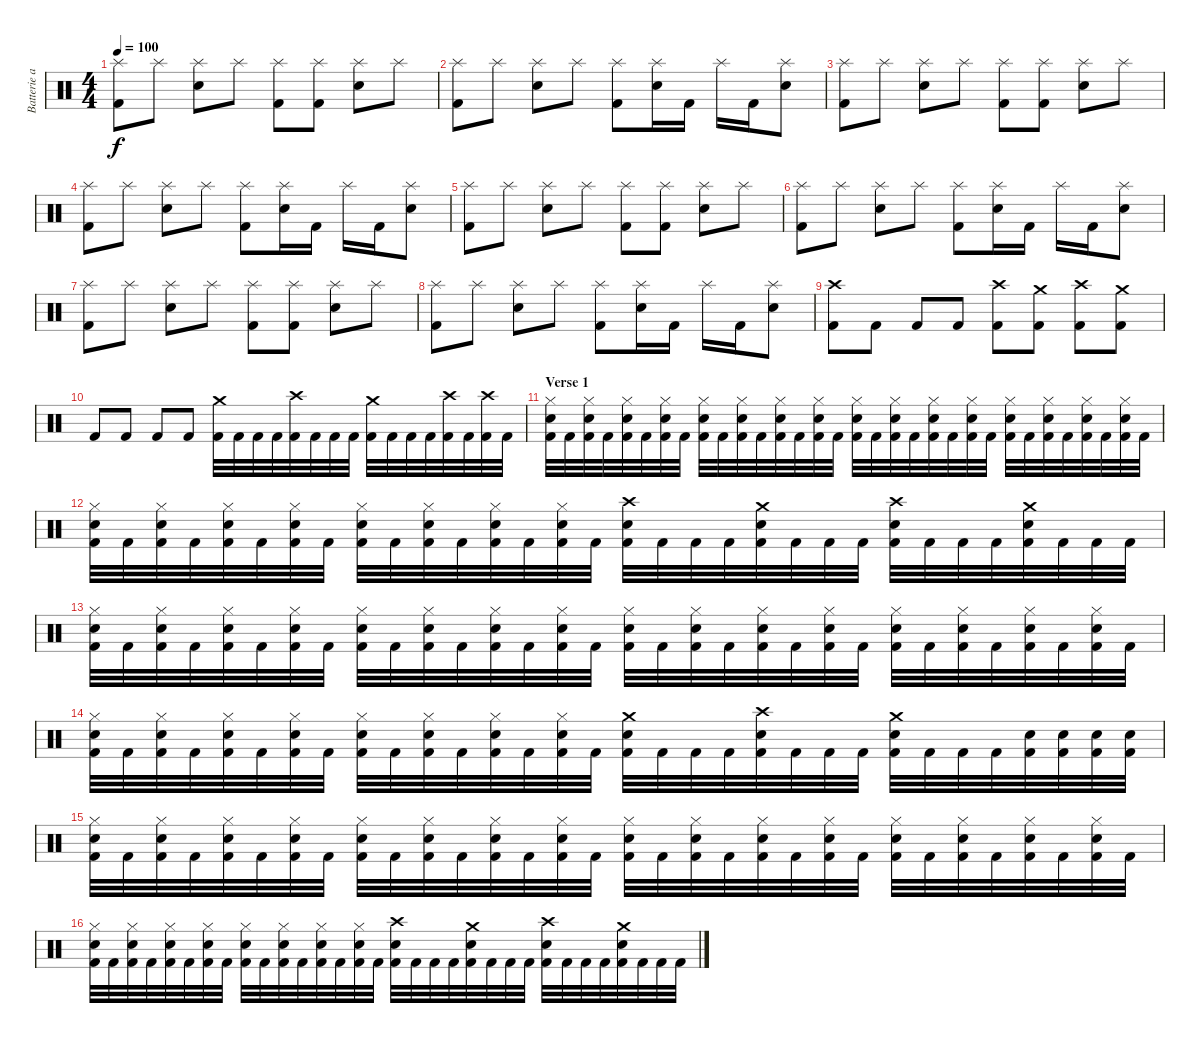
\track ("Batterie and Effects" "Batterie a") {instrument percussion}
\staff {score}
\articulation defaults
\ts (4 4)
\tempo 100
\clef neutral
\ks c
("Splash (hit)" "Kick (hit) 2").8{dy f} "Splash (hit)".8 ("Splash (hit)" "Electric Snare (hit)").8 "Splash (hit)".8 ("Splash (hit)" "Kick (hit) 2").8 ("Splash (hit)" "Kick (hit) 2").8 ("Splash (hit)" "Electric Snare (hit)").8 "Splash (hit)".8 |
("Splash (hit)" "Kick (hit) 2").8 "Splash (hit)".8 ("Splash (hit)" "Electric Snare (hit)").8 "Splash (hit)".8 ("Splash (hit)" "Kick (hit) 2").8 ("Splash (hit)" "Electric Snare (hit)").16 "Kick (hit) 2".16 "Splash (hit)".16 "Kick (hit) 2".16 ("Splash (hit)" "Electric Snare (hit)").8 |
("Splash (hit)" "Kick (hit) 2").8 "Splash (hit)".8 ("Splash (hit)" "Electric Snare (hit)").8 "Splash (hit)".8 ("Splash (hit)" "Kick (hit) 2").8 ("Splash (hit)" "Kick (hit) 2").8 ("Splash (hit)" "Electric Snare (hit)").8 "Splash (hit)".8 |
("Splash (hit)" "Kick (hit) 2").8 "Splash (hit)".8 ("Splash (hit)" "Electric Snare (hit)").8 "Splash (hit)".8 ("Splash (hit)" "Kick (hit) 2").8 ("Splash (hit)" "Electric Snare (hit)").16 "Kick (hit) 2".16 "Splash (hit)".16 "Kick (hit) 2".16 ("Splash (hit)" "Electric Snare (hit)").8 |
("Splash (hit)" "Kick (hit) 2").8 "Splash (hit)".8 ("Splash (hit)" "Electric Snare (hit)").8 "Splash (hit)".8 ("Splash (hit)" "Kick (hit) 2").8 ("Splash (hit)" "Kick (hit) 2").8 ("Splash (hit)" "Electric Snare (hit)").8 "Splash (hit)".8 |
("Splash (hit)" "Kick (hit) 2").8 "Splash (hit)".8 ("Splash (hit)" "Electric Snare (hit)").8 "Splash (hit)".8 ("Splash (hit)" "Kick (hit) 2").8 ("Splash (hit)" "Electric Snare (hit)").16 "Kick (hit) 2".16 "Splash (hit)".16 "Kick (hit) 2".16 ("Splash (hit)" "Electric Snare (hit)").8 |
("Splash (hit)" "Kick (hit) 2").8 "Splash (hit)".8 ("Splash (hit)" "Electric Snare (hit)").8 "Splash (hit)".8 ("Splash (hit)" "Kick (hit) 2").8 ("Splash (hit)" "Kick (hit) 2").8 ("Splash (hit)" "Electric Snare (hit)").8 "Splash (hit)".8 |
("Splash (hit)" "Kick (hit) 2").8 "Splash (hit)".8 ("Splash (hit)" "Electric Snare (hit)").8 "Splash (hit)".8 ("Splash (hit)" "Kick (hit) 2").8 ("Splash (hit)" "Electric Snare (hit)").16 "Kick (hit) 2".16 "Splash (hit)".16 "Kick (hit) 2".16 ("Splash (hit)" "Electric Snare (hit)").8 |
("Crash high (hit)" "Kick (hit) 2").8 "Kick (hit) 2".8 "Kick (hit) 2".8 "Kick (hit) 2".8 ("Crash high (hit)" "Kick (hit) 2").8 ("Crash medium (hit)" "Kick (hit) 2").8 ("Crash high (hit)" "Kick (hit) 2").8 ("Crash medium (hit)" "Kick (hit) 2").8 |
"Kick (hit) 2".8 "Kick (hit) 2".8 "Kick (hit) 2".8 "Kick (hit) 2".8 ("Crash medium (hit)" "Kick (hit) 2").32 "Kick (hit) 2".32 "Kick (hit) 2".32 "Kick (hit) 2".32 ("Crash high (hit)" "Kick (hit) 2").32 "Kick (hit) 2".32 "Kick (hit) 2".32 "Kick (hit) 2".32 ("Crash medium (hit)" "Kick (hit) 2").32 "Kick (hit) 2".32 "Kick (hit) 2".32 "Kick (hit) 2".32 ("Crash high (hit)" "Kick (hit) 2").32 "Kick (hit) 2".32 ("Crash high (hit)" "Kick (hit) 2").32 "Kick (hit) 2".32 |
\section ("" "Verse 1")
("Hi-Hat (closed)" "Electric Snare (hit)" "Kick (hit) 2").32 "Kick (hit) 2".32 ("Hi-Hat (closed)" "Electric Snare (hit)" "Kick (hit) 2").32 "Kick (hit) 2".32 ("Hi-Hat (closed)" "Electric Snare (hit)" "Kick (hit) 2").32 "Kick (hit) 2".32 ("Hi-Hat (closed)" "Electric Snare (hit)" "Kick (hit) 2").32 "Kick (hit) 2".32 ("Hi-Hat (closed)" "Electric Snare (hit)" "Kick (hit) 2").32 "Kick (hit) 2".32 ("Hi-Hat (closed)" "Electric Snare (hit)" "Kick (hit) 2").32 "Kick (hit) 2".32 ("Hi-Hat (closed)" "Electric Snare (hit)" "Kick (hit) 2").32 "Kick (hit) 2".32 ("Hi-Hat (closed)" "Electric Snare (hit)" "Kick (hit) 2").32 "Kick (hit) 2".32 ("Hi-Hat (closed)" "Electric Snare (hit)" "Kick (hit) 2").32 "Kick (hit) 2".32 ("Hi-Hat (closed)" "Electric Snare (hit)" "Kick (hit) 2").32 "Kick (hit) 2".32 ("Hi-Hat (closed)" "Electric Snare (hit)" "Kick (hit) 2").32 "Kick (hit) 2".32 ("Hi-Hat (closed)" "Electric Snare (hit)" "Kick (hit) 2").32 "Kick (hit) 2".32 ("Hi-Hat (closed)" "Electric Snare (hit)" "Kick (hit) 2").32 "Kick (hit) 2".32 ("Hi-Hat (closed)" "Electric Snare (hit)" "Kick (hit) 2").32 "Kick (hit) 2".32 ("Hi-Hat (closed)" "Electric Snare (hit)" "Kick (hit) 2").32 "Kick (hit) 2".32 ("Hi-Hat (closed)" "Electric Snare (hit)" "Kick (hit) 2").32 "Kick (hit) 2".32 |
("Hi-Hat (closed)" "Electric Snare (hit)" "Kick (hit) 2").32 "Kick (hit) 2".32 ("Hi-Hat (closed)" "Electric Snare (hit)" "Kick (hit) 2").32 "Kick (hit) 2".32 ("Hi-Hat (closed)" "Electric Snare (hit)" "Kick (hit) 2").32 "Kick (hit) 2".32 ("Hi-Hat (closed)" "Electric Snare (hit)" "Kick (hit) 2").32 "Kick (hit) 2".32 ("Hi-Hat (closed)" "Electric Snare (hit)" "Kick (hit) 2").32 "Kick (hit) 2".32 ("Hi-Hat (closed)" "Electric Snare (hit)" "Kick (hit) 2").32 "Kick (hit) 2".32 ("Hi-Hat (closed)" "Electric Snare (hit)" "Kick (hit) 2").32 "Kick (hit) 2".32 ("Hi-Hat (closed)" "Electric Snare (hit)" "Kick (hit) 2").32 "Kick (hit) 2".32 ("Crash high (hit)" "Electric Snare (hit)" "Kick (hit) 2").32 "Kick (hit) 2".32 "Kick (hit) 2".32 "Kick (hit) 2".32 ("Crash medium (hit)" "Electric Snare (hit)" "Kick (hit) 2").32 "Kick (hit) 2".32 "Kick (hit) 2".32 "Kick (hit) 2".32 ("Crash high (hit)" "Electric Snare (hit)" "Kick (hit) 2").32 "Kick (hit) 2".32 "Kick (hit) 2".32 "Kick (hit) 2".32 ("Crash medium (hit)" "Electric Snare (hit)" "Kick (hit) 2").32 "Kick (hit) 2".32 "Kick (hit) 2".32 "Kick (hit) 2".32 |
("Hi-Hat (closed)" "Electric Snare (hit)" "Kick (hit) 2").32 "Kick (hit) 2".32 ("Hi-Hat (closed)" "Electric Snare (hit)" "Kick (hit) 2").32 "Kick (hit) 2".32 ("Hi-Hat (closed)" "Electric Snare (hit)" "Kick (hit) 2").32 "Kick (hit) 2".32 ("Hi-Hat (closed)" "Electric Snare (hit)" "Kick (hit) 2").32 "Kick (hit) 2".32 ("Hi-Hat (closed)" "Electric Snare (hit)" "Kick (hit) 2").32 "Kick (hit) 2".32 ("Hi-Hat (closed)" "Electric Snare (hit)" "Kick (hit) 2").32 "Kick (hit) 2".32 ("Hi-Hat (closed)" "Electric Snare (hit)" "Kick (hit) 2").32 "Kick (hit) 2".32 ("Hi-Hat (closed)" "Electric Snare (hit)" "Kick (hit) 2").32 "Kick (hit) 2".32 ("Hi-Hat (closed)" "Electric Snare (hit)" "Kick (hit) 2").32 "Kick (hit) 2".32 ("Hi-Hat (closed)" "Electric Snare (hit)" "Kick (hit) 2").32 "Kick (hit) 2".32 ("Hi-Hat (closed)" "Electric Snare (hit)" "Kick (hit) 2").32 "Kick (hit) 2".32 ("Hi-Hat (closed)" "Electric Snare (hit)" "Kick (hit) 2").32 "Kick (hit) 2".32 ("Hi-Hat (closed)" "Electric Snare (hit)" "Kick (hit) 2").32 "Kick (hit) 2".32 ("Hi-Hat (closed)" "Electric Snare (hit)" "Kick (hit) 2").32 "Kick (hit) 2".32 ("Hi-Hat (closed)" "Electric Snare (hit)" "Kick (hit) 2").32 "Kick (hit) 2".32 ("Hi-Hat (closed)" "Electric Snare (hit)" "Kick (hit) 2").32 "Kick (hit) 2".32 |
("Hi-Hat (closed)" "Electric Snare (hit)" "Kick (hit) 2").32 "Kick (hit) 2".32 ("Hi-Hat (closed)" "Electric Snare (hit)" "Kick (hit) 2").32 "Kick (hit) 2".32 ("Hi-Hat (closed)" "Electric Snare (hit)" "Kick (hit) 2").32 "Kick (hit) 2".32 ("Hi-Hat (closed)" "Electric Snare (hit)" "Kick (hit) 2").32 "Kick (hit) 2".32 ("Hi-Hat (closed)" "Electric Snare (hit)" "Kick (hit) 2").32 "Kick (hit) 2".32 ("Hi-Hat (closed)" "Electric Snare (hit)" "Kick (hit) 2").32 "Kick (hit) 2".32 ("Hi-Hat (closed)" "Electric Snare (hit)" "Kick (hit) 2").32 "Kick (hit) 2".32 ("Hi-Hat (closed)" "Electric Snare (hit)" "Kick (hit) 2").32 "Kick (hit) 2".32 ("Crash medium (hit)" "Electric Snare (hit)" "Kick (hit) 2").32 "Kick (hit) 2".32 "Kick (hit) 2".32 "Kick (hit) 2".32 ("Crash high (hit)" "Electric Snare (hit)" "Kick (hit) 2").32 "Kick (hit) 2".32 "Kick (hit) 2".32 "Kick (hit) 2".32 ("Crash medium (hit)" "Electric Snare (hit)" "Kick (hit) 2").32 "Kick (hit) 2".32 "Kick (hit) 2".32 "Kick (hit) 2".32 ("Electric Snare (hit)" "Kick (hit) 2").32 ("Electric Snare (hit)" "Kick (hit) 2").32 ("Electric Snare (hit)" "Kick (hit) 2").32 ("Electric Snare (hit)" "Kick (hit) 2").32 |
("Hi-Hat (closed)" "Electric Snare (hit)" "Kick (hit) 2").32 "Kick (hit) 2".32 ("Hi-Hat (closed)" "Electric Snare (hit)" "Kick (hit) 2").32 "Kick (hit) 2".32 ("Hi-Hat (closed)" "Electric Snare (hit)" "Kick (hit) 2").32 "Kick (hit) 2".32 ("Hi-Hat (closed)" "Electric Snare (hit)" "Kick (hit) 2").32 "Kick (hit) 2".32 ("Hi-Hat (closed)" "Electric Snare (hit)" "Kick (hit) 2").32 "Kick (hit) 2".32 ("Hi-Hat (closed)" "Electric Snare (hit)" "Kick (hit) 2").32 "Kick (hit) 2".32 ("Hi-Hat (closed)" "Electric Snare (hit)" "Kick (hit) 2").32 "Kick (hit) 2".32 ("Hi-Hat (closed)" "Electric Snare (hit)" "Kick (hit) 2").32 "Kick (hit) 2".32 ("Hi-Hat (closed)" "Electric Snare (hit)" "Kick (hit) 2").32 "Kick (hit) 2".32 ("Hi-Hat (closed)" "Electric Snare (hit)" "Kick (hit) 2").32 "Kick (hit) 2".32 ("Hi-Hat (closed)" "Electric Snare (hit)" "Kick (hit) 2").32 "Kick (hit) 2".32 ("Hi-Hat (closed)" "Electric Snare (hit)" "Kick (hit) 2").32 "Kick (hit) 2".32 ("Hi-Hat (closed)" "Electric Snare (hit)" "Kick (hit) 2").32 "Kick (hit) 2".32 ("Hi-Hat (closed)" "Electric Snare (hit)" "Kick (hit) 2").32 "Kick (hit) 2".32 ("Hi-Hat (closed)" "Electric Snare (hit)" "Kick (hit) 2").32 "Kick (hit) 2".32 ("Hi-Hat (closed)" "Electric Snare (hit)" "Kick (hit) 2").32 "Kick (hit) 2".32 |
("Hi-Hat (closed)" "Electric Snare (hit)" "Kick (hit) 2").32 "Kick (hit) 2".32 ("Hi-Hat (closed)" "Electric Snare (hit)" "Kick (hit) 2").32 "Kick (hit) 2".32 ("Hi-Hat (closed)" "Electric Snare (hit)" "Kick (hit) 2").32 "Kick (hit) 2".32 ("Hi-Hat (closed)" "Electric Snare (hit)" "Kick (hit) 2").32 "Kick (hit) 2".32 ("Hi-Hat (closed)" "Electric Snare (hit)" "Kick (hit) 2").32 "Kick (hit) 2".32 ("Hi-Hat (closed)" "Electric Snare (hit)" "Kick (hit) 2").32 "Kick (hit) 2".32 ("Hi-Hat (closed)" "Electric Snare (hit)" "Kick (hit) 2").32 "Kick (hit) 2".32 ("Hi-Hat (closed)" "Electric Snare (hit)" "Kick (hit) 2").32 "Kick (hit) 2".32 ("Crash high (hit)" "Electric Snare (hit)" "Kick (hit) 2").32 "Kick (hit) 2".32 "Kick (hit) 2".32 "Kick (hit) 2".32 ("Crash medium (hit)" "Electric Snare (hit)" "Kick (hit) 2").32 "Kick (hit) 2".32 "Kick (hit) 2".32 "Kick (hit) 2".32 ("Crash high (hit)" "Electric Snare (hit)" "Kick (hit) 2").32 "Kick (hit) 2".32 "Kick (hit) 2".32 "Kick (hit) 2".32 ("Crash medium (hit)" "Electric Snare (hit)" "Kick (hit) 2").32 "Kick (hit) 2".32 "Kick (hit) 2".32 "Kick (hit) 2".32
